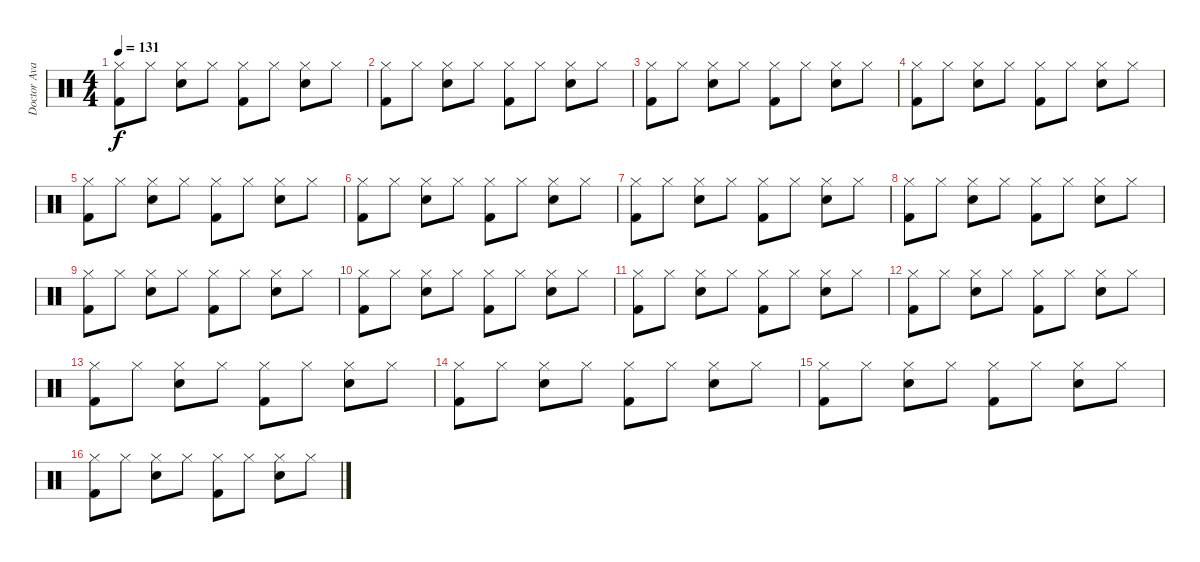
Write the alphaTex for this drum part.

\track ("Doctor Avalanche" "Doctor Ava") {instrument percussion}
\staff {score}
\articulation defaults
\ts (4 4)
\tempo 131
\clef neutral
\ks c
("Kick (hit) 2" "Hi-Hat (closed)").8{dy f} "Hi-Hat (closed)".8 ("Snare (hit) 2" "Hi-Hat (closed)").8 "Hi-Hat (closed)".8 ("Kick (hit) 2" "Hi-Hat (closed)").8 "Hi-Hat (closed)".8 ("Snare (hit) 2" "Hi-Hat (closed)").8 "Hi-Hat (closed)".8 |
("Kick (hit) 2" "Hi-Hat (closed)").8 "Hi-Hat (closed)".8 ("Snare (hit) 2" "Hi-Hat (closed)").8 "Hi-Hat (closed)".8 ("Kick (hit) 2" "Hi-Hat (closed)").8 "Hi-Hat (closed)".8 ("Snare (hit) 2" "Hi-Hat (closed)").8 "Hi-Hat (closed)".8 |
("Kick (hit) 2" "Hi-Hat (closed)").8 "Hi-Hat (closed)".8 ("Snare (hit) 2" "Hi-Hat (closed)").8 "Hi-Hat (closed)".8 ("Kick (hit) 2" "Hi-Hat (closed)").8 "Hi-Hat (closed)".8 ("Snare (hit) 2" "Hi-Hat (closed)").8 "Hi-Hat (closed)".8 |
("Kick (hit) 2" "Hi-Hat (closed)").8 "Hi-Hat (closed)".8 ("Snare (hit) 2" "Hi-Hat (closed)").8 "Hi-Hat (closed)".8 ("Kick (hit) 2" "Hi-Hat (closed)").8 "Hi-Hat (closed)".8 ("Snare (hit) 2" "Hi-Hat (closed)").8 "Hi-Hat (closed)".8 |
("Kick (hit) 2" "Hi-Hat (closed)").8 "Hi-Hat (closed)".8 ("Snare (hit) 2" "Hi-Hat (closed)").8 "Hi-Hat (closed)".8 ("Kick (hit) 2" "Hi-Hat (closed)").8 "Hi-Hat (closed)".8 ("Snare (hit) 2" "Hi-Hat (closed)").8 "Hi-Hat (closed)".8 |
("Kick (hit) 2" "Hi-Hat (closed)").8 "Hi-Hat (closed)".8 ("Snare (hit) 2" "Hi-Hat (closed)").8 "Hi-Hat (closed)".8 ("Kick (hit) 2" "Hi-Hat (closed)").8 "Hi-Hat (closed)".8 ("Snare (hit) 2" "Hi-Hat (closed)").8 "Hi-Hat (closed)".8 |
("Kick (hit) 2" "Hi-Hat (closed)").8 "Hi-Hat (closed)".8 ("Snare (hit) 2" "Hi-Hat (closed)").8 "Hi-Hat (closed)".8 ("Kick (hit) 2" "Hi-Hat (closed)").8 "Hi-Hat (closed)".8 ("Snare (hit) 2" "Hi-Hat (closed)").8 "Hi-Hat (closed)".8 |
("Kick (hit) 2" "Hi-Hat (closed)").8 "Hi-Hat (closed)".8 ("Snare (hit) 2" "Hi-Hat (closed)").8 "Hi-Hat (closed)".8 ("Kick (hit) 2" "Hi-Hat (closed)").8 "Hi-Hat (closed)".8 ("Snare (hit) 2" "Hi-Hat (closed)").8 "Hi-Hat (closed)".8 |
("Kick (hit) 2" "Hi-Hat (closed)").8 "Hi-Hat (closed)".8 ("Snare (hit) 2" "Hi-Hat (closed)").8 "Hi-Hat (closed)".8 ("Kick (hit) 2" "Hi-Hat (closed)").8 "Hi-Hat (closed)".8 ("Snare (hit) 2" "Hi-Hat (closed)").8 "Hi-Hat (closed)".8 |
("Kick (hit) 2" "Hi-Hat (closed)").8 "Hi-Hat (closed)".8 ("Snare (hit) 2" "Hi-Hat (closed)").8 "Hi-Hat (closed)".8 ("Kick (hit) 2" "Hi-Hat (closed)").8 "Hi-Hat (closed)".8 ("Snare (hit) 2" "Hi-Hat (closed)").8 "Hi-Hat (closed)".8 |
("Kick (hit) 2" "Hi-Hat (closed)").8 "Hi-Hat (closed)".8 ("Snare (hit) 2" "Hi-Hat (closed)").8 "Hi-Hat (closed)".8 ("Kick (hit) 2" "Hi-Hat (closed)").8 "Hi-Hat (closed)".8 ("Snare (hit) 2" "Hi-Hat (closed)").8 "Hi-Hat (closed)".8 |
("Kick (hit) 2" "Hi-Hat (closed)").8 "Hi-Hat (closed)".8 ("Snare (hit) 2" "Hi-Hat (closed)").8 "Hi-Hat (closed)".8 ("Kick (hit) 2" "Hi-Hat (closed)").8 "Hi-Hat (closed)".8 ("Snare (hit) 2" "Hi-Hat (closed)").8 "Hi-Hat (closed)".8 |
("Kick (hit) 2" "Hi-Hat (closed)").8 "Hi-Hat (closed)".8 ("Snare (hit) 2" "Hi-Hat (closed)").8 "Hi-Hat (closed)".8 ("Kick (hit) 2" "Hi-Hat (closed)").8 "Hi-Hat (closed)".8 ("Snare (hit) 2" "Hi-Hat (closed)").8 "Hi-Hat (closed)".8 |
("Kick (hit) 2" "Hi-Hat (closed)").8 "Hi-Hat (closed)".8 ("Snare (hit) 2" "Hi-Hat (closed)").8 "Hi-Hat (closed)".8 ("Kick (hit) 2" "Hi-Hat (closed)").8 "Hi-Hat (closed)".8 ("Snare (hit) 2" "Hi-Hat (closed)").8 "Hi-Hat (closed)".8 |
("Kick (hit) 2" "Hi-Hat (closed)").8 "Hi-Hat (closed)".8 ("Snare (hit) 2" "Hi-Hat (closed)").8 "Hi-Hat (closed)".8 ("Kick (hit) 2" "Hi-Hat (closed)").8 "Hi-Hat (closed)".8 ("Snare (hit) 2" "Hi-Hat (closed)").8 "Hi-Hat (closed)".8 |
("Kick (hit) 2" "Hi-Hat (closed)").8 "Hi-Hat (closed)".8 ("Snare (hit) 2" "Hi-Hat (closed)").8 "Hi-Hat (closed)".8 ("Kick (hit) 2" "Hi-Hat (closed)").8 "Hi-Hat (closed)".8 ("Snare (hit) 2" "Hi-Hat (closed)").8 "Hi-Hat (closed)".8
